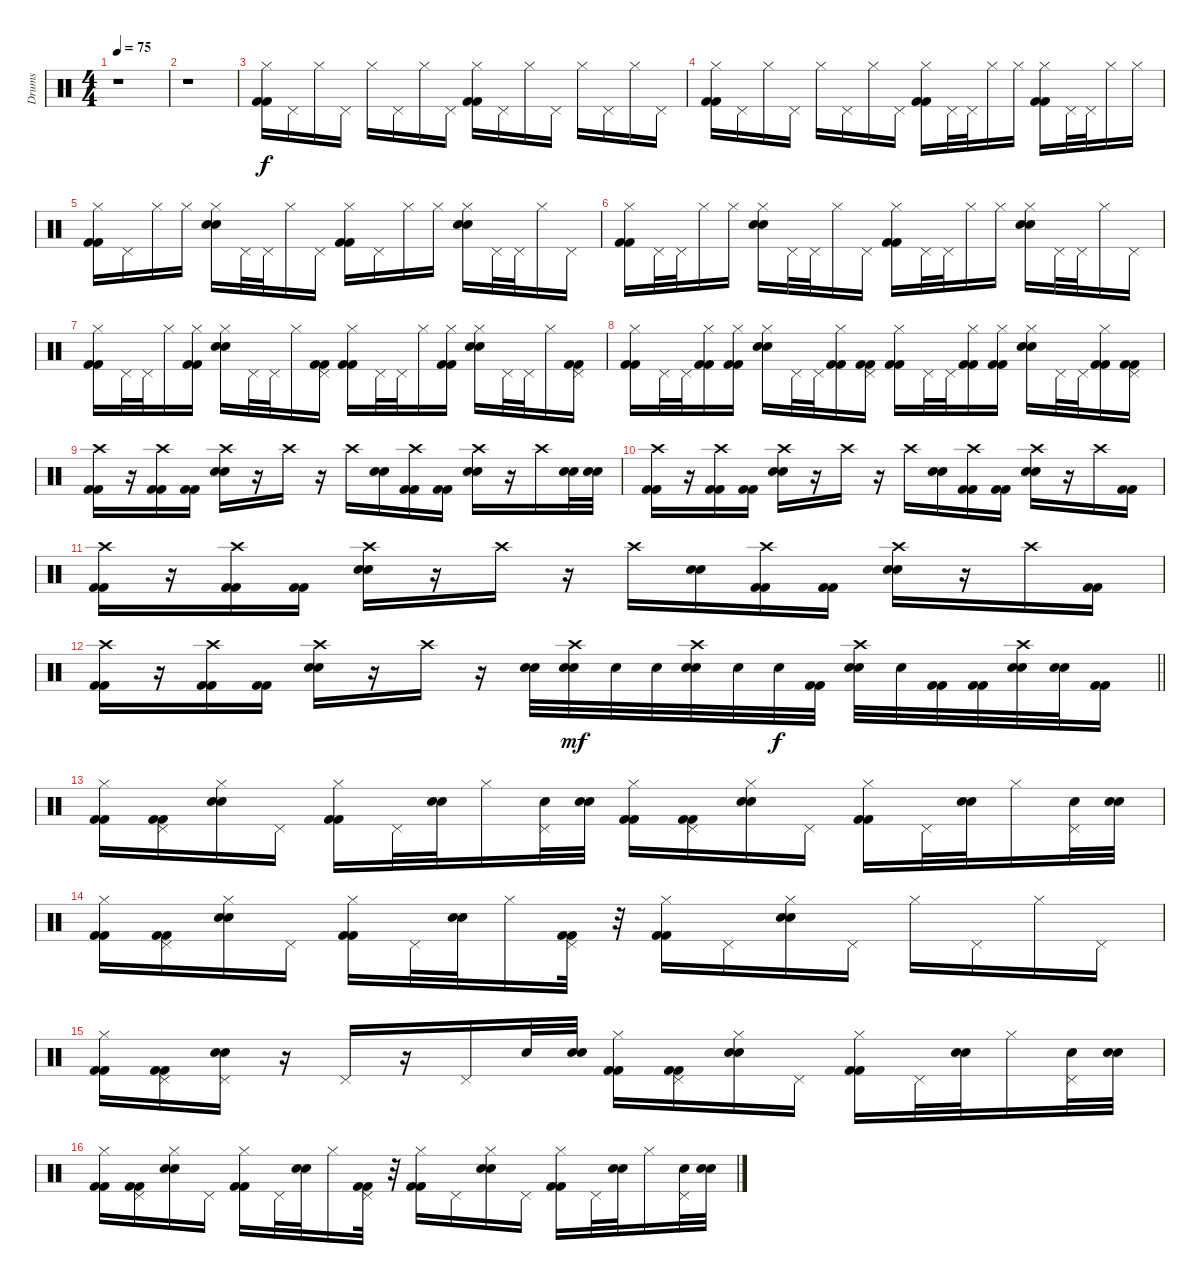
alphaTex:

\track ("Drums" "Drums") {instrument percussion}
\staff {score}
\articulation defaults
\ts (4 4)
\tempo 75
\clef neutral
\ks c
r.1{dy f} |
r.1 |
("Hi-Hat (closed)" "Kick (hit) 2" "Kick (hit) 2").16 "Pedal Hi-Hat (hit)".16 "Hi-Hat (closed)".16 "Pedal Hi-Hat (hit)".16 "Hi-Hat (closed)".16 "Pedal Hi-Hat (hit)".16 "Hi-Hat (closed)".16 "Pedal Hi-Hat (hit)".16 ("Hi-Hat (closed)" "Kick (hit) 2" "Kick (hit) 2").16 "Pedal Hi-Hat (hit)".16 "Hi-Hat (closed)".16 "Pedal Hi-Hat (hit)".16 "Hi-Hat (closed)".16 "Pedal Hi-Hat (hit)".16 "Hi-Hat (closed)".16 "Pedal Hi-Hat (hit)".16 |
("Hi-Hat (closed)" "Kick (hit) 2" "Kick (hit) 2").16 "Pedal Hi-Hat (hit)".16 "Hi-Hat (closed)".16 "Pedal Hi-Hat (hit)".16 "Hi-Hat (closed)".16 "Pedal Hi-Hat (hit)".16 "Hi-Hat (closed)".16 "Pedal Hi-Hat (hit)".16 ("Hi-Hat (closed)" "Kick (hit) 2" "Kick (hit) 2").16 "Pedal Hi-Hat (hit)".32 "Pedal Hi-Hat (hit)".32 "Hi-Hat (closed)".16 "Hi-Hat (closed)".16 ("Hi-Hat (closed)" "Kick (hit) 2" "Kick (hit) 2").16 "Pedal Hi-Hat (hit)".32 "Pedal Hi-Hat (hit)".32 "Hi-Hat (closed)".16 "Hi-Hat (closed)".16 |
("Hi-Hat (closed)" "Kick (hit) 2" "Kick (hit) 2").16 "Pedal Hi-Hat (hit)".16 "Hi-Hat (closed)".16 "Hi-Hat (closed)".16 ("Hi-Hat (closed)" "Electric Snare (hit)" "Electric Snare (hit)").16 "Pedal Hi-Hat (hit)".32 "Pedal Hi-Hat (hit)".32 "Hi-Hat (closed)".16 "Pedal Hi-Hat (hit)".16 ("Hi-Hat (closed)" "Kick (hit) 2" "Kick (hit) 2").16 "Pedal Hi-Hat (hit)".16 "Hi-Hat (closed)".16 "Hi-Hat (closed)".16 ("Hi-Hat (closed)" "Electric Snare (hit)" "Electric Snare (hit)").16 "Pedal Hi-Hat (hit)".32 "Pedal Hi-Hat (hit)".32 "Hi-Hat (closed)".16 "Pedal Hi-Hat (hit)".16 |
("Hi-Hat (closed)" "Kick (hit) 2" "Kick (hit) 2").16 "Pedal Hi-Hat (hit)".32 "Pedal Hi-Hat (hit)".32 "Hi-Hat (closed)".16 "Hi-Hat (closed)".16 ("Hi-Hat (closed)" "Electric Snare (hit)" "Electric Snare (hit)").16 "Pedal Hi-Hat (hit)".32 "Pedal Hi-Hat (hit)".32 "Hi-Hat (closed)".16 "Pedal Hi-Hat (hit)".16 ("Hi-Hat (closed)" "Kick (hit) 2" "Kick (hit) 2").16 "Pedal Hi-Hat (hit)".32 "Pedal Hi-Hat (hit)".32 "Hi-Hat (closed)".16 "Hi-Hat (closed)".16 ("Hi-Hat (closed)" "Electric Snare (hit)" "Electric Snare (hit)").16 "Pedal Hi-Hat (hit)".32 "Pedal Hi-Hat (hit)".32 "Hi-Hat (closed)".16 "Pedal Hi-Hat (hit)".16 |
("Hi-Hat (closed)" "Kick (hit) 2" "Kick (hit) 2").16 "Pedal Hi-Hat (hit)".32 "Pedal Hi-Hat (hit)".32 "Hi-Hat (closed)".16 ("Hi-Hat (closed)" "Kick (hit) 2" "Kick (hit) 2").16 ("Hi-Hat (closed)" "Electric Snare (hit)" "Electric Snare (hit)").16 "Pedal Hi-Hat (hit)".32 "Pedal Hi-Hat (hit)".32 "Hi-Hat (closed)".16 ("Pedal Hi-Hat (hit)" "Kick (hit) 2" "Kick (hit) 2").16 ("Hi-Hat (closed)" "Kick (hit) 2" "Kick (hit) 2").16 "Pedal Hi-Hat (hit)".32 "Pedal Hi-Hat (hit)".32 "Hi-Hat (closed)".16 ("Hi-Hat (closed)" "Kick (hit) 2" "Kick (hit) 2").16 ("Hi-Hat (closed)" "Electric Snare (hit)" "Electric Snare (hit)").16 "Pedal Hi-Hat (hit)".32 "Pedal Hi-Hat (hit)".32 "Hi-Hat (closed)".16 ("Pedal Hi-Hat (hit)" "Kick (hit) 2" "Kick (hit) 2").16 |
("Hi-Hat (closed)" "Kick (hit) 2" "Kick (hit) 2").16 "Pedal Hi-Hat (hit)".32 "Pedal Hi-Hat (hit)".32 ("Hi-Hat (closed)" "Kick (hit) 2" "Kick (hit) 2").16 ("Hi-Hat (closed)" "Kick (hit) 2" "Kick (hit) 2").16 ("Hi-Hat (closed)" "Electric Snare (hit)" "Electric Snare (hit)").16 "Pedal Hi-Hat (hit)".32 "Pedal Hi-Hat (hit)".32 ("Hi-Hat (closed)" "Kick (hit) 2" "Kick (hit) 2").16 ("Pedal Hi-Hat (hit)" "Kick (hit) 2" "Kick (hit) 2").16 ("Hi-Hat (closed)" "Kick (hit) 2" "Kick (hit) 2").16 "Pedal Hi-Hat (hit)".32 "Pedal Hi-Hat (hit)".32 ("Hi-Hat (closed)" "Kick (hit) 2" "Kick (hit) 2").16 ("Hi-Hat (closed)" "Kick (hit) 2" "Kick (hit) 2").16 ("Hi-Hat (closed)" "Electric Snare (hit)" "Electric Snare (hit)").16 "Pedal Hi-Hat (hit)".32 "Pedal Hi-Hat (hit)".32 ("Hi-Hat (closed)" "Kick (hit) 2" "Kick (hit) 2").16 ("Pedal Hi-Hat (hit)" "Kick (hit) 2" "Kick (hit) 2").16 |
("Crash high (hit)" "Kick (hit) 2" "Kick (hit) 2").16 r.16 ("Crash high (hit)" "Kick (hit) 2" "Kick (hit) 2").16 ("Kick (hit) 2" "Kick (hit) 2").16 ("Crash high (hit)" "Electric Snare (hit)" "Electric Snare (hit)").16 r.16 "Crash high (hit)".16 r.16 "Crash high (hit)".16 ("Electric Snare (hit)" "Electric Snare (hit)").16 ("Crash high (hit)" "Kick (hit) 2" "Kick (hit) 2").16 ("Kick (hit) 2" "Kick (hit) 2").16 ("Crash high (hit)" "Electric Snare (hit)" "Electric Snare (hit)").16 r.16 "Crash high (hit)".16 ("Electric Snare (hit)" "Electric Snare (hit)").32 ("Electric Snare (hit)" "Electric Snare (hit)").32 |
("Crash high (hit)" "Kick (hit) 2" "Kick (hit) 2").16 r.16 ("Crash high (hit)" "Kick (hit) 2" "Kick (hit) 2").16 ("Kick (hit) 2" "Kick (hit) 2").16 ("Crash high (hit)" "Electric Snare (hit)" "Electric Snare (hit)").16 r.16 "Crash high (hit)".16 r.16 "Crash high (hit)".16 ("Electric Snare (hit)" "Electric Snare (hit)").16 ("Crash high (hit)" "Kick (hit) 2" "Kick (hit) 2").16 ("Kick (hit) 2" "Kick (hit) 2").16 ("Crash high (hit)" "Electric Snare (hit)" "Electric Snare (hit)").16 r.16 "Crash high (hit)".16 ("Kick (hit) 2" "Kick (hit) 2").16 |
("Crash high (hit)" "Kick (hit) 2" "Kick (hit) 2").16 r.16 ("Crash high (hit)" "Kick (hit) 2" "Kick (hit) 2").16 ("Kick (hit) 2" "Kick (hit) 2").16 ("Crash high (hit)" "Electric Snare (hit)" "Electric Snare (hit)").16 r.16 "Crash high (hit)".16 r.16 "Crash high (hit)".16 ("Electric Snare (hit)" "Electric Snare (hit)").16 ("Crash high (hit)" "Kick (hit) 2" "Kick (hit) 2").16 ("Kick (hit) 2" "Kick (hit) 2").16 ("Crash high (hit)" "Electric Snare (hit)" "Electric Snare (hit)").16 r.16 "Crash high (hit)".16 ("Kick (hit) 2" "Kick (hit) 2").16 |
\barLineRight lightlight
("Crash high (hit)" "Kick (hit) 2" "Kick (hit) 2").16 r.16 ("Crash high (hit)" "Kick (hit) 2" "Kick (hit) 2").16 ("Kick (hit) 2" "Kick (hit) 2").16 ("Crash high (hit)" "Electric Snare (hit)" "Electric Snare (hit)").16 r.16 "Crash high (hit)".16 r.16 ("Electric Snare (hit)" "Electric Snare (hit)").32 ("Crash high (hit)" "Electric Snare (hit)" "Electric Snare (hit)").32{dy mf} "Electric Snare (hit)".32 "Electric Snare (hit)".32 ("Crash high (hit)" "Electric Snare (hit)" "Electric Snare (hit)").32 "Electric Snare (hit)".32 "Electric Snare (hit)".32{dy f} ("Kick (hit) 2" "Kick (hit) 2").32 ("Crash high (hit)" "Electric Snare (hit)" "Electric Snare (hit)").32 "Electric Snare (hit)".32 ("Kick (hit) 2" "Kick (hit) 2").32 ("Kick (hit) 2" "Kick (hit) 2").32 ("Crash high (hit)" "Electric Snare (hit)" "Electric Snare (hit)").32 ("Electric Snare (hit)" "Electric Snare (hit)").32 ("Kick (hit) 2" "Kick (hit) 2").16 |
("Hi-Hat (closed)" "Kick (hit) 2" "Kick (hit) 2").16 ("Pedal Hi-Hat (hit)" "Kick (hit) 2" "Kick (hit) 2").16 ("Hi-Hat (closed)" "Electric Snare (hit)" "Electric Snare (hit)").16 "Pedal Hi-Hat (hit)".16 ("Hi-Hat (closed)" "Kick (hit) 2" "Kick (hit) 2").16 "Pedal Hi-Hat (hit)".32 ("Electric Snare (hit)" "Electric Snare (hit)").32 "Hi-Hat (closed)".16 ("Pedal Hi-Hat (hit)" "Electric Snare (hit)").32 ("Electric Snare (hit)" "Electric Snare (hit)").32 ("Hi-Hat (closed)" "Kick (hit) 2" "Kick (hit) 2").16 ("Pedal Hi-Hat (hit)" "Kick (hit) 2" "Kick (hit) 2").16 ("Hi-Hat (closed)" "Electric Snare (hit)" "Electric Snare (hit)").16 "Pedal Hi-Hat (hit)".16 ("Hi-Hat (closed)" "Kick (hit) 2" "Kick (hit) 2").16 "Pedal Hi-Hat (hit)".32 ("Electric Snare (hit)" "Electric Snare (hit)").32 "Hi-Hat (closed)".16 ("Pedal Hi-Hat (hit)" "Electric Snare (hit)").32 ("Electric Snare (hit)" "Electric Snare (hit)").32 |
("Hi-Hat (closed)" "Kick (hit) 2" "Kick (hit) 2").16 ("Pedal Hi-Hat (hit)" "Kick (hit) 2" "Kick (hit) 2").16 ("Hi-Hat (closed)" "Electric Snare (hit)" "Electric Snare (hit)").16 "Pedal Hi-Hat (hit)".16 ("Hi-Hat (closed)" "Kick (hit) 2" "Kick (hit) 2").16 "Pedal Hi-Hat (hit)".32 ("Electric Snare (hit)" "Electric Snare (hit)").32 "Hi-Hat (closed)".16 ("Pedal Hi-Hat (hit)" "Kick (hit) 2" "Kick (hit) 2").32 r.32 ("Hi-Hat (closed)" "Kick (hit) 2" "Kick (hit) 2").16 "Pedal Hi-Hat (hit)".16 ("Hi-Hat (closed)" "Electric Snare (hit)" "Electric Snare (hit)").16 "Pedal Hi-Hat (hit)".16 "Hi-Hat (closed)".16 "Pedal Hi-Hat (hit)".16 "Hi-Hat (closed)".16 "Pedal Hi-Hat (hit)".16 |
("Hi-Hat (closed)" "Kick (hit) 2" "Kick (hit) 2").16 ("Pedal Hi-Hat (hit)" "Kick (hit) 2" "Kick (hit) 2").16 ("Pedal Hi-Hat (hit)" "Electric Snare (hit)" "Electric Snare (hit)").16 r.16 "Pedal Hi-Hat (hit)".16 r.16 "Pedal Hi-Hat (hit)".16 "Electric Snare (hit)".32 ("Electric Snare (hit)" "Electric Snare (hit)").32 ("Hi-Hat (closed)" "Kick (hit) 2" "Kick (hit) 2").16 ("Pedal Hi-Hat (hit)" "Kick (hit) 2" "Kick (hit) 2").16 ("Hi-Hat (closed)" "Electric Snare (hit)" "Electric Snare (hit)").16 "Pedal Hi-Hat (hit)".16 ("Hi-Hat (closed)" "Kick (hit) 2" "Kick (hit) 2").16 "Pedal Hi-Hat (hit)".32 ("Electric Snare (hit)" "Electric Snare (hit)").32 "Hi-Hat (closed)".16 ("Pedal Hi-Hat (hit)" "Electric Snare (hit)").32 ("Electric Snare (hit)" "Electric Snare (hit)").32 |
("Hi-Hat (closed)" "Kick (hit) 2" "Kick (hit) 2").16 ("Pedal Hi-Hat (hit)" "Kick (hit) 2" "Kick (hit) 2").16 ("Hi-Hat (closed)" "Electric Snare (hit)" "Electric Snare (hit)").16 "Pedal Hi-Hat (hit)".16 ("Hi-Hat (closed)" "Kick (hit) 2" "Kick (hit) 2").16 "Pedal Hi-Hat (hit)".32 ("Electric Snare (hit)" "Electric Snare (hit)").32 "Hi-Hat (closed)".16 ("Pedal Hi-Hat (hit)" "Kick (hit) 2" "Kick (hit) 2").32 r.32 ("Hi-Hat (closed)" "Kick (hit) 2" "Kick (hit) 2").16 "Pedal Hi-Hat (hit)".16 ("Hi-Hat (closed)" "Electric Snare (hit)" "Electric Snare (hit)").16 "Pedal Hi-Hat (hit)".16 ("Hi-Hat (closed)" "Kick (hit) 2" "Kick (hit) 2").16 "Pedal Hi-Hat (hit)".32 ("Electric Snare (hit)" "Electric Snare (hit)").32 "Hi-Hat (closed)".16 ("Pedal Hi-Hat (hit)" "Electric Snare (hit)").32 ("Electric Snare (hit)" "Electric Snare (hit)").32
